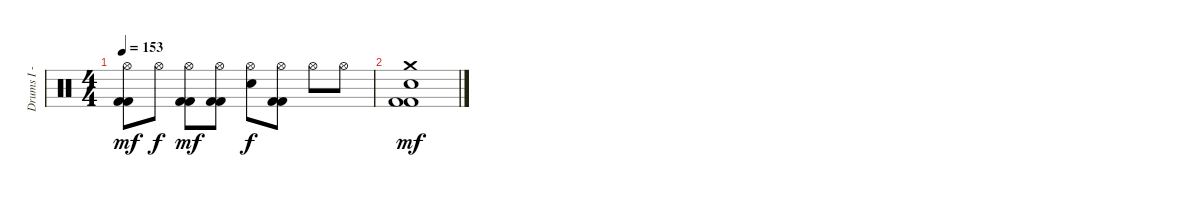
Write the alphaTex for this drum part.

\track ("Drums I - Adam" "Drums I - ") {instrument percussion}
\staff {score}
\articulation defaults
\ts (4 4)
\tempo 153
\clef neutral
\ks c
("Hi-Hat (open)" "Kick (hit) 2" "Kick (hit) 2").8{dy mf} "Hi-Hat (open)".8{dy f} ("Hi-Hat (open)" "Kick (hit) 2" "Kick (hit) 2").8{dy mf} ("Hi-Hat (open)" "Kick (hit) 2" "Kick (hit) 2").8 ("Hi-Hat (open)" "Electric Snare (hit)").8{dy f} ("Hi-Hat (open)" "Kick (hit) 2" "Kick (hit) 2").8 "Hi-Hat (open)".8 "Hi-Hat (open)".8 |
("Crash medium (hit)" "Electric Snare (hit)" "Kick (hit) 2" "Kick (hit) 2").1{dy mf}
